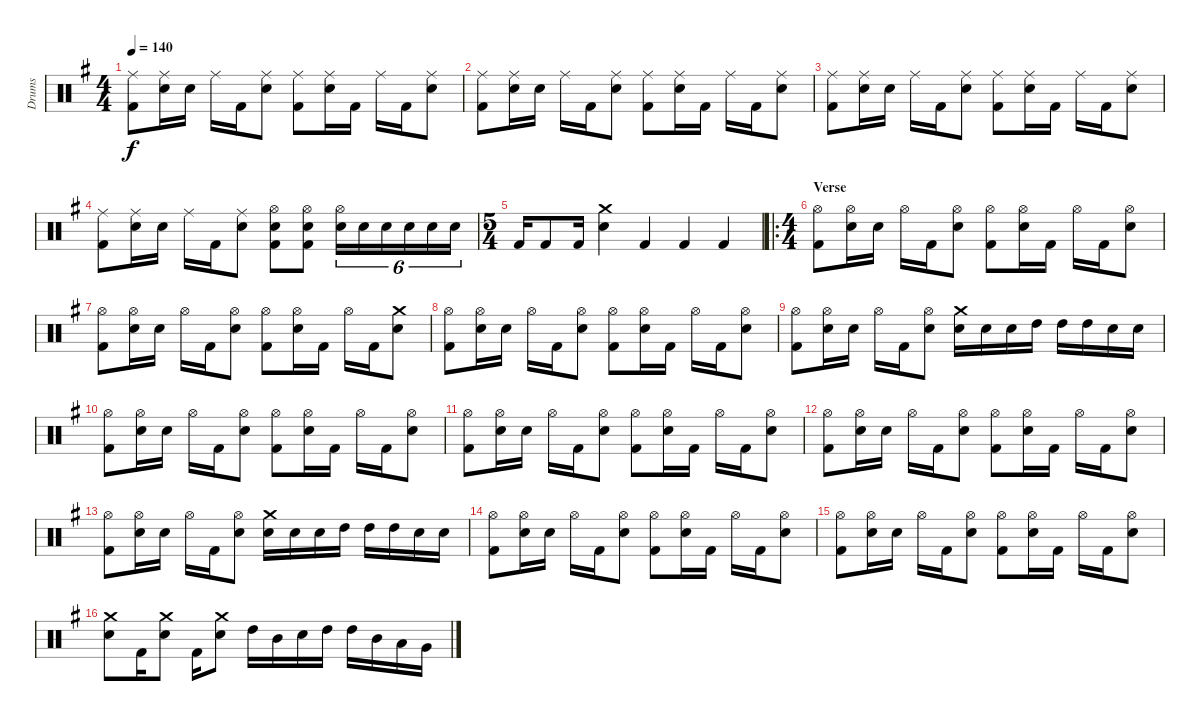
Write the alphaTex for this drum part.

\track ("Drums" "Drums") {instrument percussion}
\staff {score}
\articulation defaults
\ts (4 4)
\tempo 140
\clef neutral
\ks g
("Ride (middle)" "Kick (hit) 2").8{dy f} ("Ride (middle)" "Electric Snare (hit)").16 "Electric Snare (hit)".16 "Ride (middle)".16 "Kick (hit) 2".16 ("Ride (middle)" "Electric Snare (hit)").8 ("Ride (middle)" "Kick (hit) 2").8 ("Ride (middle)" "Electric Snare (hit)").16 "Kick (hit) 2".16 "Ride (middle)".16 "Kick (hit) 2".16 ("Ride (middle)" "Electric Snare (hit)").8 |
("Ride (middle)" "Kick (hit) 2").8 ("Ride (middle)" "Electric Snare (hit)").16 "Electric Snare (hit)".16 "Ride (middle)".16 "Kick (hit) 2".16 ("Ride (middle)" "Electric Snare (hit)").8 ("Ride (middle)" "Kick (hit) 2").8 ("Ride (middle)" "Electric Snare (hit)").16 "Kick (hit) 2".16 "Ride (middle)".16 "Kick (hit) 2".16 ("Ride (middle)" "Electric Snare (hit)").8 |
("Ride (middle)" "Kick (hit) 2").8 ("Ride (middle)" "Electric Snare (hit)").16 "Electric Snare (hit)".16 "Ride (middle)".16 "Kick (hit) 2".16 ("Ride (middle)" "Electric Snare (hit)").8 ("Ride (middle)" "Kick (hit) 2").8 ("Ride (middle)" "Electric Snare (hit)").16 "Kick (hit) 2".16 "Ride (middle)".16 "Kick (hit) 2".16 ("Ride (middle)" "Electric Snare (hit)").8 |
("Ride (middle)" "Kick (hit) 2").8 ("Ride (middle)" "Electric Snare (hit)").16 "Electric Snare (hit)".16 "Ride (middle)".16 "Kick (hit) 2".16 ("Ride (middle)" "Electric Snare (hit)").8 ("Hi-Hat (open)" "Electric Snare (hit)" "Kick (hit) 2").8 ("Hi-Hat (open)" "Electric Snare (hit)" "Kick (hit) 2").8 ("Hi-Hat (open)" "Electric Snare (hit)").16{tu (6 4)} "Electric Snare (hit)".16{tu (6 4)} "Electric Snare (hit)".16{tu (6 4)} "Electric Snare (hit)".16{tu (6 4)} "Electric Snare (hit)".16{tu (6 4)} "Electric Snare (hit)".16{tu (6 4)} |
\ts (5 4)
"Kick (hit) 2".16 "Kick (hit) 2".8 "Kick (hit) 2".16 ("Crash medium (hit)" "Electric Snare (hit)").4 "Kick (hit) 2".4 "Kick (hit) 2".4 "Kick (hit) 2".4 |
\ro
\ts (4 4)
\section ("" "Verse")
("Hi-Hat (open)" "Kick (hit) 2").8 ("Hi-Hat (open)" "Electric Snare (hit)").16 "Electric Snare (hit)".16 "Hi-Hat (open)".16 "Kick (hit) 2".16 ("Hi-Hat (open)" "Electric Snare (hit)").8 ("Hi-Hat (open)" "Kick (hit) 2").8 ("Hi-Hat (open)" "Electric Snare (hit)").16 "Kick (hit) 2".16 "Hi-Hat (open)".16 "Kick (hit) 2".16 ("Hi-Hat (open)" "Electric Snare (hit)").8 |
("Hi-Hat (open)" "Kick (hit) 2").8 ("Hi-Hat (open)" "Electric Snare (hit)").16 "Electric Snare (hit)".16 "Hi-Hat (open)".16 "Kick (hit) 2".16 ("Hi-Hat (open)" "Electric Snare (hit)").8 ("Hi-Hat (open)" "Kick (hit) 2").8 ("Hi-Hat (open)" "Electric Snare (hit)").16 "Kick (hit) 2".16 "Hi-Hat (open)".16 "Kick (hit) 2".16 ("Crash medium (hit)" "Electric Snare (hit)").8 |
("Hi-Hat (open)" "Kick (hit) 2").8 ("Hi-Hat (open)" "Electric Snare (hit)").16 "Electric Snare (hit)".16 "Hi-Hat (open)".16 "Kick (hit) 2".16 ("Hi-Hat (open)" "Electric Snare (hit)").8 ("Hi-Hat (open)" "Kick (hit) 2").8 ("Hi-Hat (open)" "Electric Snare (hit)").16 "Kick (hit) 2".16 "Hi-Hat (open)".16 "Kick (hit) 2".16 ("Hi-Hat (open)" "Electric Snare (hit)").8 |
("Hi-Hat (open)" "Kick (hit) 2").8 ("Hi-Hat (open)" "Electric Snare (hit)").16 "Electric Snare (hit)".16 "Hi-Hat (open)".16 "Kick (hit) 2".16 ("Hi-Hat (open)" "Electric Snare (hit)").8 ("Crash medium (hit)" "Electric Snare (hit)").16 "Electric Snare (hit)".16 "Electric Snare (hit)".16 "High Tom (hit)".16 "High Tom (hit)".16 "High Tom (hit)".16 "Electric Snare (hit)".16 "Electric Snare (hit)".16 |
("Hi-Hat (open)" "Kick (hit) 2").8 ("Hi-Hat (open)" "Electric Snare (hit)").16 "Electric Snare (hit)".16 "Hi-Hat (open)".16 "Kick (hit) 2".16 ("Hi-Hat (open)" "Electric Snare (hit)").8 ("Hi-Hat (open)" "Kick (hit) 2").8 ("Hi-Hat (open)" "Electric Snare (hit)").16 "Kick (hit) 2".16 "Hi-Hat (open)".16 "Kick (hit) 2".16 ("Hi-Hat (open)" "Electric Snare (hit)").8 |
("Hi-Hat (open)" "Kick (hit) 2").8 ("Hi-Hat (open)" "Electric Snare (hit)").16 "Electric Snare (hit)".16 "Hi-Hat (open)".16 "Kick (hit) 2".16 ("Hi-Hat (open)" "Electric Snare (hit)").8 ("Hi-Hat (open)" "Kick (hit) 2").8 ("Hi-Hat (open)" "Electric Snare (hit)").16 "Kick (hit) 2".16 "Hi-Hat (open)".16 "Kick (hit) 2".16 ("Hi-Hat (open)" "Electric Snare (hit)").8 |
("Hi-Hat (open)" "Kick (hit) 2").8 ("Hi-Hat (open)" "Electric Snare (hit)").16 "Electric Snare (hit)".16 "Hi-Hat (open)".16 "Kick (hit) 2".16 ("Hi-Hat (open)" "Electric Snare (hit)").8 ("Hi-Hat (open)" "Kick (hit) 2").8 ("Hi-Hat (open)" "Electric Snare (hit)").16 "Kick (hit) 2".16 "Hi-Hat (open)".16 "Kick (hit) 2".16 ("Hi-Hat (open)" "Electric Snare (hit)").8 |
("Hi-Hat (open)" "Kick (hit) 2").8 ("Hi-Hat (open)" "Electric Snare (hit)").16 "Electric Snare (hit)".16 "Hi-Hat (open)".16 "Kick (hit) 2".16 ("Hi-Hat (open)" "Electric Snare (hit)").8 ("Crash medium (hit)" "Electric Snare (hit)").16 "Electric Snare (hit)".16 "Electric Snare (hit)".16 "High Tom (hit)".16 "High Tom (hit)".16 "High Tom (hit)".16 "Electric Snare (hit)".16 "Electric Snare (hit)".16 |
("Hi-Hat (open)" "Kick (hit) 2").8 ("Hi-Hat (open)" "Electric Snare (hit)").16 "Electric Snare (hit)".16 "Hi-Hat (open)".16 "Kick (hit) 2".16 ("Hi-Hat (open)" "Electric Snare (hit)").8 ("Hi-Hat (open)" "Kick (hit) 2").8 ("Hi-Hat (open)" "Electric Snare (hit)").16 "Kick (hit) 2".16 "Hi-Hat (open)".16 "Kick (hit) 2".16 ("Hi-Hat (open)" "Electric Snare (hit)").8 |
("Hi-Hat (open)" "Kick (hit) 2").8 ("Hi-Hat (open)" "Electric Snare (hit)").16 "Electric Snare (hit)".16 "Hi-Hat (open)".16 "Kick (hit) 2".16 ("Hi-Hat (open)" "Electric Snare (hit)").8 ("Hi-Hat (open)" "Kick (hit) 2").8 ("Hi-Hat (open)" "Electric Snare (hit)").16 "Kick (hit) 2".16 "Hi-Hat (open)".16 "Kick (hit) 2".16 ("Hi-Hat (open)" "Electric Snare (hit)").8 |
("Crash medium (hit)" "Electric Snare (hit)").8 "Kick (hit) 2".16 ("Crash medium (hit)" "Electric Snare (hit)").8 "Kick (hit) 2".16 ("Crash medium (hit)" "Electric Snare (hit)").8 "High Tom (hit)".16 "Mid Tom (hit)".16 "Electric Snare (hit)".16 "High Tom (hit)".16 "High Tom (hit)".16 "Mid Tom (hit)".16 "Low Tom (hit)".16 "Very Low Tom (hit)".16
